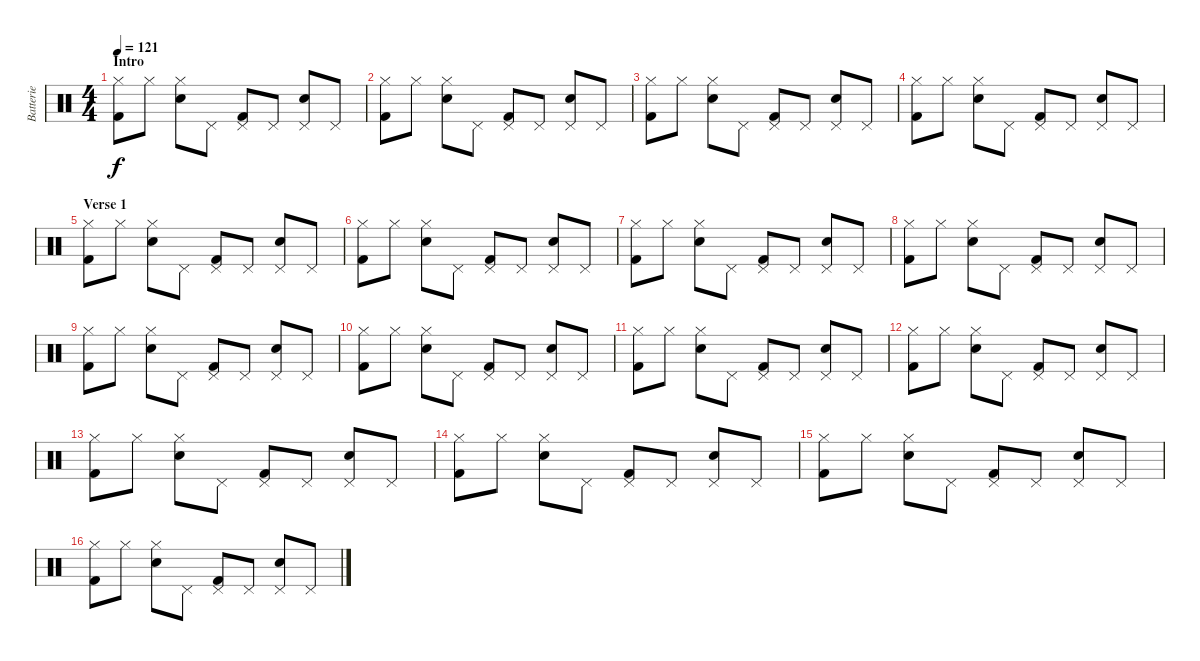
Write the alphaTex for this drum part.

\track ("Batterie" "Batterie") {instrument percussion}
\staff {score}
\articulation defaults
\ts (4 4)
\section ("" "Intro")
\tempo 121
\clef neutral
\ks c
("Hi-Hat (closed)" "Kick (hit) 2").8{dy f} "Hi-Hat (closed)".8 ("Hi-Hat (closed)" "Electric Snare (hit)").8 "Pedal Hi-Hat (hit)".8 ("Pedal Hi-Hat (hit)" "Kick (hit) 2").8 "Pedal Hi-Hat (hit)".8 ("Pedal Hi-Hat (hit)" "Electric Snare (hit)").8 "Pedal Hi-Hat (hit)".8 |
("Hi-Hat (closed)" "Kick (hit) 2").8 "Hi-Hat (closed)".8 ("Hi-Hat (closed)" "Electric Snare (hit)").8 "Pedal Hi-Hat (hit)".8 ("Pedal Hi-Hat (hit)" "Kick (hit) 2").8 "Pedal Hi-Hat (hit)".8 ("Pedal Hi-Hat (hit)" "Electric Snare (hit)").8 "Pedal Hi-Hat (hit)".8 |
("Hi-Hat (closed)" "Kick (hit) 2").8 "Hi-Hat (closed)".8 ("Hi-Hat (closed)" "Electric Snare (hit)").8 "Pedal Hi-Hat (hit)".8 ("Pedal Hi-Hat (hit)" "Kick (hit) 2").8 "Pedal Hi-Hat (hit)".8 ("Pedal Hi-Hat (hit)" "Electric Snare (hit)").8 "Pedal Hi-Hat (hit)".8 |
("Hi-Hat (closed)" "Kick (hit) 2").8 "Hi-Hat (closed)".8 ("Hi-Hat (closed)" "Electric Snare (hit)").8 "Pedal Hi-Hat (hit)".8 ("Pedal Hi-Hat (hit)" "Kick (hit) 2").8 "Pedal Hi-Hat (hit)".8 ("Pedal Hi-Hat (hit)" "Electric Snare (hit)").8 "Pedal Hi-Hat (hit)".8 |
\section ("" "Verse 1")
("Hi-Hat (closed)" "Kick (hit) 2").8 "Hi-Hat (closed)".8 ("Hi-Hat (closed)" "Electric Snare (hit)").8 "Pedal Hi-Hat (hit)".8 ("Pedal Hi-Hat (hit)" "Kick (hit) 2").8 "Pedal Hi-Hat (hit)".8 ("Pedal Hi-Hat (hit)" "Electric Snare (hit)").8 "Pedal Hi-Hat (hit)".8 |
("Hi-Hat (closed)" "Kick (hit) 2").8 "Hi-Hat (closed)".8 ("Hi-Hat (closed)" "Electric Snare (hit)").8 "Pedal Hi-Hat (hit)".8 ("Pedal Hi-Hat (hit)" "Kick (hit) 2").8 "Pedal Hi-Hat (hit)".8 ("Pedal Hi-Hat (hit)" "Electric Snare (hit)").8 "Pedal Hi-Hat (hit)".8 |
("Hi-Hat (closed)" "Kick (hit) 2").8 "Hi-Hat (closed)".8 ("Hi-Hat (closed)" "Electric Snare (hit)").8 "Pedal Hi-Hat (hit)".8 ("Pedal Hi-Hat (hit)" "Kick (hit) 2").8 "Pedal Hi-Hat (hit)".8 ("Pedal Hi-Hat (hit)" "Electric Snare (hit)").8 "Pedal Hi-Hat (hit)".8 |
("Hi-Hat (closed)" "Kick (hit) 2").8 "Hi-Hat (closed)".8 ("Hi-Hat (closed)" "Electric Snare (hit)").8 "Pedal Hi-Hat (hit)".8 ("Pedal Hi-Hat (hit)" "Kick (hit) 2").8 "Pedal Hi-Hat (hit)".8 ("Pedal Hi-Hat (hit)" "Electric Snare (hit)").8 "Pedal Hi-Hat (hit)".8 |
("Hi-Hat (closed)" "Kick (hit) 2").8 "Hi-Hat (closed)".8 ("Hi-Hat (closed)" "Electric Snare (hit)").8 "Pedal Hi-Hat (hit)".8 ("Pedal Hi-Hat (hit)" "Kick (hit) 2").8 "Pedal Hi-Hat (hit)".8 ("Pedal Hi-Hat (hit)" "Electric Snare (hit)").8 "Pedal Hi-Hat (hit)".8 |
("Hi-Hat (closed)" "Kick (hit) 2").8 "Hi-Hat (closed)".8 ("Hi-Hat (closed)" "Electric Snare (hit)").8 "Pedal Hi-Hat (hit)".8 ("Pedal Hi-Hat (hit)" "Kick (hit) 2").8 "Pedal Hi-Hat (hit)".8 ("Pedal Hi-Hat (hit)" "Electric Snare (hit)").8 "Pedal Hi-Hat (hit)".8 |
("Hi-Hat (closed)" "Kick (hit) 2").8 "Hi-Hat (closed)".8 ("Hi-Hat (closed)" "Electric Snare (hit)").8 "Pedal Hi-Hat (hit)".8 ("Pedal Hi-Hat (hit)" "Kick (hit) 2").8 "Pedal Hi-Hat (hit)".8 ("Pedal Hi-Hat (hit)" "Electric Snare (hit)").8 "Pedal Hi-Hat (hit)".8 |
("Hi-Hat (closed)" "Kick (hit) 2").8 "Hi-Hat (closed)".8 ("Hi-Hat (closed)" "Electric Snare (hit)").8 "Pedal Hi-Hat (hit)".8 ("Pedal Hi-Hat (hit)" "Kick (hit) 2").8 "Pedal Hi-Hat (hit)".8 ("Pedal Hi-Hat (hit)" "Electric Snare (hit)").8 "Pedal Hi-Hat (hit)".8 |
("Hi-Hat (closed)" "Kick (hit) 2").8 "Hi-Hat (closed)".8 ("Hi-Hat (closed)" "Electric Snare (hit)").8 "Pedal Hi-Hat (hit)".8 ("Pedal Hi-Hat (hit)" "Kick (hit) 2").8 "Pedal Hi-Hat (hit)".8 ("Pedal Hi-Hat (hit)" "Electric Snare (hit)").8 "Pedal Hi-Hat (hit)".8 |
("Hi-Hat (closed)" "Kick (hit) 2").8 "Hi-Hat (closed)".8 ("Hi-Hat (closed)" "Electric Snare (hit)").8 "Pedal Hi-Hat (hit)".8 ("Pedal Hi-Hat (hit)" "Kick (hit) 2").8 "Pedal Hi-Hat (hit)".8 ("Pedal Hi-Hat (hit)" "Electric Snare (hit)").8 "Pedal Hi-Hat (hit)".8 |
("Hi-Hat (closed)" "Kick (hit) 2").8 "Hi-Hat (closed)".8 ("Hi-Hat (closed)" "Electric Snare (hit)").8 "Pedal Hi-Hat (hit)".8 ("Pedal Hi-Hat (hit)" "Kick (hit) 2").8 "Pedal Hi-Hat (hit)".8 ("Pedal Hi-Hat (hit)" "Electric Snare (hit)").8 "Pedal Hi-Hat (hit)".8 |
("Hi-Hat (closed)" "Kick (hit) 2").8 "Hi-Hat (closed)".8 ("Hi-Hat (closed)" "Electric Snare (hit)").8 "Pedal Hi-Hat (hit)".8 ("Pedal Hi-Hat (hit)" "Kick (hit) 2").8 "Pedal Hi-Hat (hit)".8 ("Pedal Hi-Hat (hit)" "Electric Snare (hit)").8 "Pedal Hi-Hat (hit)".8
